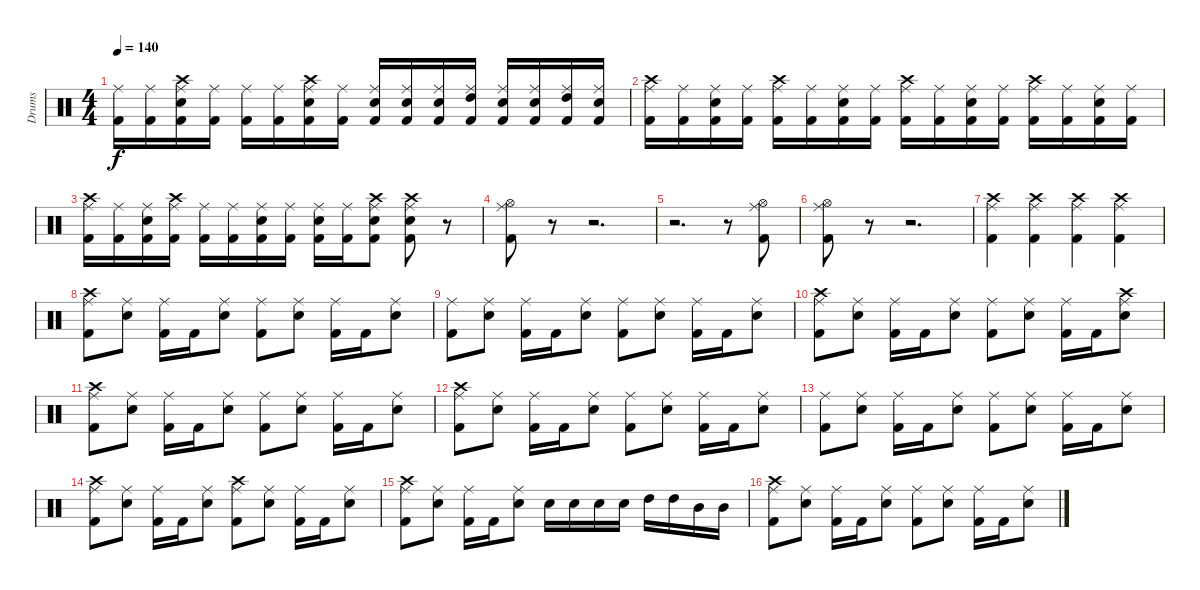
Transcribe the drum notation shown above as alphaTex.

\track ("Drums" "Drums") {instrument percussion}
\staff {score}
\articulation defaults
\ts (4 4)
\tempo 140
\clef neutral
\ks c
("Kick (hit) 2" "Ride (middle)").16{dy f} ("Kick (hit) 2" "Ride (middle)").16 ("Kick (hit) 2" "Snare (hit) 2" "Crash high (hit)" "Ride (middle)").16 ("Kick (hit) 2" "Ride (middle)").16 ("Kick (hit) 2" "Ride (middle)").16 ("Kick (hit) 2" "Ride (middle)").16 ("Kick (hit) 2" "Snare (hit) 2" "Crash high (hit)" "Ride (middle)").16 ("Kick (hit) 2" "Ride (middle)").16 ("Kick (hit) 2" "Snare (hit) 2" "Ride (middle)").16 ("Kick (hit) 2" "Snare (hit) 2" "Ride (middle)").16 ("Kick (hit) 2" "Snare (hit) 2" "Ride (middle)").16 ("Kick (hit) 2" "High Tom (hit)" "Ride (middle)").16 ("Kick (hit) 2" "Snare (hit) 2" "Ride (middle)").16 ("Kick (hit) 2" "Snare (hit) 2" "Ride (middle)").16 ("Kick (hit) 2" "High Tom (hit)" "Ride (middle)").16 ("Kick (hit) 2" "Snare (hit) 2" "Ride (middle)").16 |
("Kick (hit) 2" "Crash high (hit)" "Ride (middle)").16 ("Kick (hit) 2" "Ride (middle)").16 ("Kick (hit) 2" "Snare (hit) 2" "Ride (middle)").16 ("Kick (hit) 2" "Ride (middle)").16 ("Kick (hit) 2" "Crash high (hit)" "Ride (middle)").16 ("Kick (hit) 2" "Ride (middle)").16 ("Kick (hit) 2" "Snare (hit) 2" "Ride (middle)").16 ("Kick (hit) 2" "Ride (middle)").16 ("Kick (hit) 2" "Crash high (hit)" "Ride (middle)").16 ("Kick (hit) 2" "Ride (middle)").16 ("Kick (hit) 2" "Snare (hit) 2" "Ride (middle)").16 ("Kick (hit) 2" "Ride (middle)").16 ("Kick (hit) 2" "Crash high (hit)" "Ride (middle)").16 ("Kick (hit) 2" "Ride (middle)").16 ("Kick (hit) 2" "Snare (hit) 2" "Ride (middle)").16 ("Kick (hit) 2" "Ride (middle)").16 |
("Kick (hit) 2" "Crash high (hit)" "Ride (middle)").16 ("Kick (hit) 2" "Ride (middle)").16 ("Kick (hit) 2" "Snare (hit) 2" "Ride (middle)").16 ("Kick (hit) 2" "Crash high (hit)" "Ride (middle)").16 ("Kick (hit) 2" "Ride (middle)").16 ("Kick (hit) 2" "Ride (middle)").16 ("Kick (hit) 2" "Snare (hit) 2" "Ride (middle)").16 ("Kick (hit) 2" "Ride (middle)").16 ("Kick (hit) 2" "Snare (hit) 2" "Ride (middle)").16 ("Kick (hit) 2" "Ride (middle)").16 ("Kick (hit) 2" "Snare (hit) 2" "Crash high (hit)" "Ride (middle)").8 ("Kick (hit) 2" "Snare (hit) 2" "Crash high (hit)" "Ride (middle)").8 r.8 |
("Kick (hit) 2" "Hi-Hat (open)" "Ride (middle)").8 r.8 r.2{d} |
r.2{d} r.8 ("Kick (hit) 2" "Hi-Hat (open)" "Ride (middle)").8 |
("Kick (hit) 2" "Hi-Hat (open)" "Ride (middle)").8 r.8 r.2{d} |
("Kick (hit) 2" "Crash high (hit)" "Ride (middle)").4 ("Kick (hit) 2" "Crash high (hit)" "Ride (middle)").4 ("Kick (hit) 2" "Crash high (hit)" "Ride (middle)").4 ("Kick (hit) 2" "Crash high (hit)" "Ride (middle)").4 |
("Kick (hit) 2" "Crash high (hit)" "Ride (middle)").8 ("Snare (hit) 2" "Ride (middle)").8 ("Kick (hit) 2" "Ride (middle)").16 "Kick (hit) 2".16 ("Snare (hit) 2" "Ride (middle)").8 ("Kick (hit) 2" "Ride (middle)").8 ("Snare (hit) 2" "Ride (middle)").8 ("Kick (hit) 2" "Ride (middle)").16 "Kick (hit) 2".16 ("Snare (hit) 2" "Ride (middle)").8 |
("Kick (hit) 2" "Ride (middle)").8 ("Snare (hit) 2" "Ride (middle)").8 ("Kick (hit) 2" "Ride (middle)").16 "Kick (hit) 2".16 ("Snare (hit) 2" "Ride (middle)").8 ("Kick (hit) 2" "Ride (middle)").8 ("Snare (hit) 2" "Ride (middle)").8 ("Kick (hit) 2" "Ride (middle)").16 "Kick (hit) 2".16 ("Snare (hit) 2" "Ride (middle)").8 |
("Kick (hit) 2" "Crash high (hit)" "Ride (middle)").8 ("Snare (hit) 2" "Ride (middle)").8 ("Kick (hit) 2" "Ride (middle)").16 "Kick (hit) 2".16 ("Snare (hit) 2" "Ride (middle)").8 ("Kick (hit) 2" "Ride (middle)").8 ("Snare (hit) 2" "Ride (middle)").8 ("Kick (hit) 2" "Ride (middle)").16 "Kick (hit) 2".16 ("Snare (hit) 2" "Crash high (hit)" "Ride (middle)").8 |
("Kick (hit) 2" "Crash high (hit)" "Ride (middle)").8 ("Snare (hit) 2" "Ride (middle)").8 ("Kick (hit) 2" "Ride (middle)").16 "Kick (hit) 2".16 ("Snare (hit) 2" "Ride (middle)").8 ("Kick (hit) 2" "Ride (middle)").8 ("Snare (hit) 2" "Ride (middle)").8 ("Kick (hit) 2" "Ride (middle)").16 "Kick (hit) 2".16 ("Snare (hit) 2" "Ride (middle)").8 |
("Kick (hit) 2" "Crash high (hit)" "Ride (middle)").8 ("Snare (hit) 2" "Ride (middle)").8 ("Kick (hit) 2" "Ride (middle)").16 "Kick (hit) 2".16 ("Snare (hit) 2" "Ride (middle)").8 ("Kick (hit) 2" "Ride (middle)").8 ("Snare (hit) 2" "Ride (middle)").8 ("Kick (hit) 2" "Ride (middle)").16 "Kick (hit) 2".16 ("Snare (hit) 2" "Ride (middle)").8 |
("Kick (hit) 2" "Ride (middle)").8 ("Snare (hit) 2" "Ride (middle)").8 ("Kick (hit) 2" "Ride (middle)").16 "Kick (hit) 2".16 ("Snare (hit) 2" "Ride (middle)").8 ("Kick (hit) 2" "Ride (middle)").8 ("Snare (hit) 2" "Ride (middle)").8 ("Kick (hit) 2" "Ride (middle)").16 "Kick (hit) 2".16 ("Snare (hit) 2" "Ride (middle)").8 |
("Kick (hit) 2" "Crash high (hit)" "Ride (middle)").8 ("Snare (hit) 2" "Ride (middle)").8 ("Kick (hit) 2" "Ride (middle)").16 "Kick (hit) 2".16 ("Snare (hit) 2" "Ride (middle)").8 ("Kick (hit) 2" "Crash high (hit)" "Ride (middle)").8 ("Snare (hit) 2" "Ride (middle)").8 ("Kick (hit) 2" "Ride (middle)").16 "Kick (hit) 2".16 ("Snare (hit) 2" "Ride (middle)").8 |
("Kick (hit) 2" "Crash high (hit)" "Ride (middle)").8 ("Snare (hit) 2" "Ride (middle)").8 ("Kick (hit) 2" "Ride (middle)").16 "Kick (hit) 2".16 ("Snare (hit) 2" "Ride (middle)").8 "Snare (hit) 2".16 "Snare (hit) 2".16 "Snare (hit) 2".16 "Snare (hit) 2".16 "High Tom (hit)".16 "High Tom (hit)".16 "Mid Tom (hit)".16 "Mid Tom (hit)".16 |
("Kick (hit) 2" "Crash high (hit)" "Ride (middle)").8 ("Snare (hit) 2" "Ride (middle)").8 ("Kick (hit) 2" "Ride (middle)").16 "Kick (hit) 2".16 ("Snare (hit) 2" "Ride (middle)").8 ("Kick (hit) 2" "Ride (middle)").8 ("Snare (hit) 2" "Ride (middle)").8 ("Kick (hit) 2" "Ride (middle)").16 "Kick (hit) 2".16 ("Snare (hit) 2" "Ride (middle)").8
